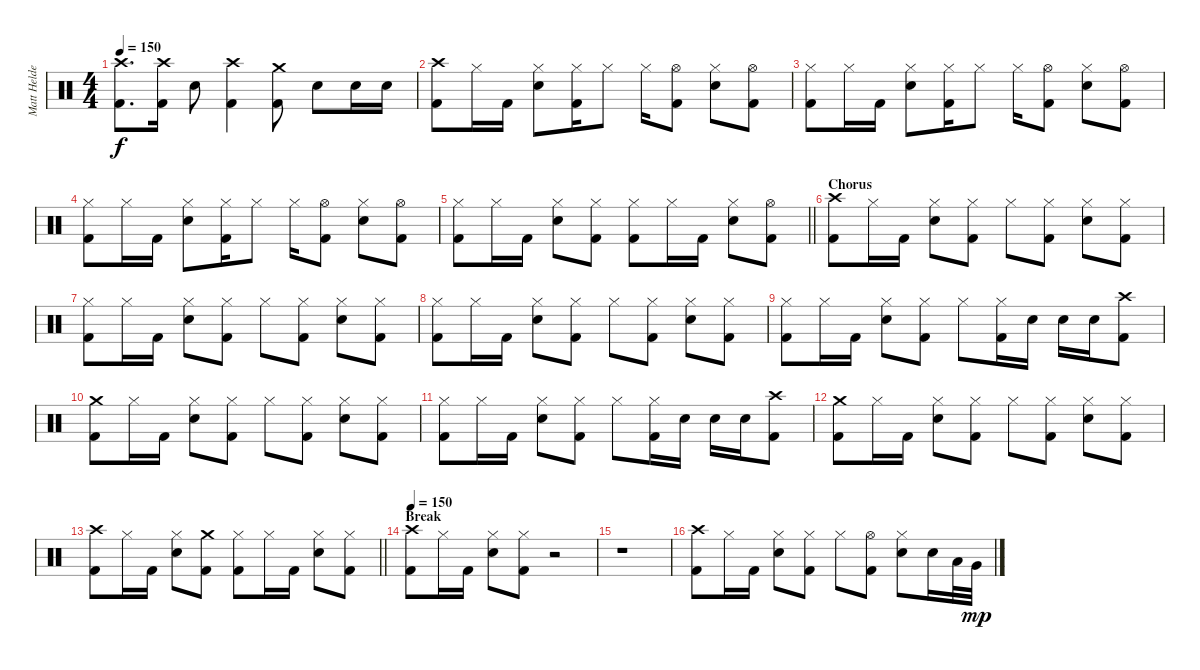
\track ("Matt Helders - Drums MIDI" "Matt Helde") {instrument percussion}
\staff {score}
\articulation defaults
\ts (4 4)
\tempo 150
\clef neutral
\ks c
("Crash high (hit)" "Kick (hit) 2").8{d dy f} ("Crash high (hit)" "Kick (hit) 2").16 "Snare (hit) 2".8 ("Crash high (hit)" "Kick (hit) 2").4 ("Crash medium (hit)" "Kick (hit) 2").8 "Snare (hit) 2".8 "Snare (hit) 2".16 "Snare (hit) 2".16 |
("Crash high (hit)" "Kick (hit) 2").8 "Hi-Hat (closed)".16 "Kick (hit) 2".16 ("Hi-Hat (closed)" "Snare (hit) 2").8 ("Hi-Hat (closed)" "Kick (hit) 2").16 "Hi-Hat (closed)".8 "Hi-Hat (closed)".16 ("Hi-Hat (open)" "Kick (hit) 2").8 ("Hi-Hat (closed)" "Snare (hit) 2").8 ("Hi-Hat (open)" "Kick (hit) 2").8 |
("Hi-Hat (closed)" "Kick (hit) 2").8 "Hi-Hat (closed)".16 "Kick (hit) 2".16 ("Hi-Hat (closed)" "Snare (hit) 2").8 ("Hi-Hat (closed)" "Kick (hit) 2").16 "Hi-Hat (closed)".8 "Hi-Hat (closed)".16 ("Hi-Hat (open)" "Kick (hit) 2").8 ("Hi-Hat (closed)" "Snare (hit) 2").8 ("Hi-Hat (open)" "Kick (hit) 2").8 |
("Hi-Hat (closed)" "Kick (hit) 2").8 "Hi-Hat (closed)".16 "Kick (hit) 2".16 ("Hi-Hat (closed)" "Snare (hit) 2").8 ("Hi-Hat (closed)" "Kick (hit) 2").16 "Hi-Hat (closed)".8 "Hi-Hat (closed)".16 ("Hi-Hat (open)" "Kick (hit) 2").8 ("Hi-Hat (closed)" "Snare (hit) 2").8 ("Hi-Hat (open)" "Kick (hit) 2").8 |
\barLineRight lightlight
("Hi-Hat (closed)" "Kick (hit) 2").8 "Hi-Hat (closed)".16 "Kick (hit) 2".16 ("Hi-Hat (closed)" "Snare (hit) 2").8 ("Hi-Hat (closed)" "Kick (hit) 2").8 ("Hi-Hat (closed)" "Kick (hit) 2").8 "Hi-Hat (closed)".16 "Kick (hit) 2".16 ("Hi-Hat (closed)" "Snare (hit) 2").8 ("Hi-Hat (open)" "Kick (hit) 2").8 |
\section ("" "Chorus")
("Crash high (hit)" "Kick (hit) 2").8 "Hi-Hat (closed)".16 "Kick (hit) 2".16 ("Hi-Hat (closed)" "Snare (hit) 2").8 ("Hi-Hat (closed)" "Kick (hit) 2").8 "Hi-Hat (closed)".8 ("Hi-Hat (closed)" "Kick (hit) 2").8 ("Hi-Hat (closed)" "Snare (hit) 2").8 ("Hi-Hat (closed)" "Kick (hit) 2").8 |
("Hi-Hat (closed)" "Kick (hit) 2").8 "Hi-Hat (closed)".16 "Kick (hit) 2".16 ("Hi-Hat (closed)" "Snare (hit) 2").8 ("Hi-Hat (closed)" "Kick (hit) 2").8 "Hi-Hat (closed)".8 ("Hi-Hat (closed)" "Kick (hit) 2").8 ("Hi-Hat (closed)" "Snare (hit) 2").8 ("Hi-Hat (closed)" "Kick (hit) 2").8 |
("Hi-Hat (closed)" "Kick (hit) 2").8 "Hi-Hat (closed)".16 "Kick (hit) 2".16 ("Hi-Hat (closed)" "Snare (hit) 2").8 ("Hi-Hat (closed)" "Kick (hit) 2").8 "Hi-Hat (closed)".8 ("Hi-Hat (closed)" "Kick (hit) 2").8 ("Hi-Hat (closed)" "Snare (hit) 2").8 ("Hi-Hat (closed)" "Kick (hit) 2").8 |
("Hi-Hat (closed)" "Kick (hit) 2").8 "Hi-Hat (closed)".16 "Kick (hit) 2".16 ("Hi-Hat (closed)" "Snare (hit) 2").8 ("Hi-Hat (closed)" "Kick (hit) 2").8 "Hi-Hat (closed)".8 ("Hi-Hat (closed)" "Kick (hit) 2").16 "Snare (hit) 2".16 "Snare (hit) 2".16 "Snare (hit) 2".16 ("Crash high (hit)" "Kick (hit) 2").8 |
("Crash medium (hit)" "Kick (hit) 2").8 "Hi-Hat (closed)".16 "Kick (hit) 2".16 ("Hi-Hat (closed)" "Snare (hit) 2").8 ("Hi-Hat (closed)" "Kick (hit) 2").8 "Hi-Hat (closed)".8 ("Hi-Hat (closed)" "Kick (hit) 2").8 ("Hi-Hat (closed)" "Snare (hit) 2").8 ("Hi-Hat (closed)" "Kick (hit) 2").8 |
("Hi-Hat (closed)" "Kick (hit) 2").8 "Hi-Hat (closed)".16 "Kick (hit) 2".16 ("Hi-Hat (closed)" "Snare (hit) 2").8 ("Hi-Hat (closed)" "Kick (hit) 2").8 "Hi-Hat (closed)".8 ("Hi-Hat (closed)" "Kick (hit) 2").16 "Snare (hit) 2".16 "Snare (hit) 2".16 "Snare (hit) 2".16 ("Crash high (hit)" "Kick (hit) 2").8 |
("Crash medium (hit)" "Kick (hit) 2").8 "Hi-Hat (closed)".16 "Kick (hit) 2".16 ("Hi-Hat (closed)" "Snare (hit) 2").8 ("Hi-Hat (closed)" "Kick (hit) 2").8 "Hi-Hat (closed)".8 ("Hi-Hat (closed)" "Kick (hit) 2").8 ("Hi-Hat (closed)" "Snare (hit) 2").8 ("Hi-Hat (closed)" "Kick (hit) 2").8 |
\barLineRight lightlight
("Crash high (hit)" "Kick (hit) 2").8 "Hi-Hat (closed)".16 "Kick (hit) 2".16 ("Hi-Hat (closed)" "Snare (hit) 2").8 ("Crash medium (hit)" "Kick (hit) 2").8 ("Hi-Hat (closed)" "Kick (hit) 2").8 "Hi-Hat (closed)".16 "Kick (hit) 2".16 ("Hi-Hat (closed)" "Snare (hit) 2").8 ("Hi-Hat (closed)" "Kick (hit) 2").8 |
\section ("" "Break")
\tempo 150
("Crash high (hit)" "Kick (hit) 2").8 "Hi-Hat (closed)".16 "Kick (hit) 2".16 ("Hi-Hat (closed)" "Snare (hit) 2").8 ("Hi-Hat (closed)" "Kick (hit) 2").8 r.2 |
r.1 |
("Crash high (hit)" "Kick (hit) 2").8 "Hi-Hat (closed)".16 "Kick (hit) 2".16 ("Hi-Hat (closed)" "Snare (hit) 2").8 ("Hi-Hat (closed)" "Kick (hit) 2").8 "Hi-Hat (closed)".8 ("Hi-Hat (open)" "Kick (hit) 2").8 ("Hi-Hat (closed)" "Snare (hit) 2").8 "Snare (hit) 2".16 "Low Tom (hit)".32 "Very Low Tom (hit)".32{dy mp}
